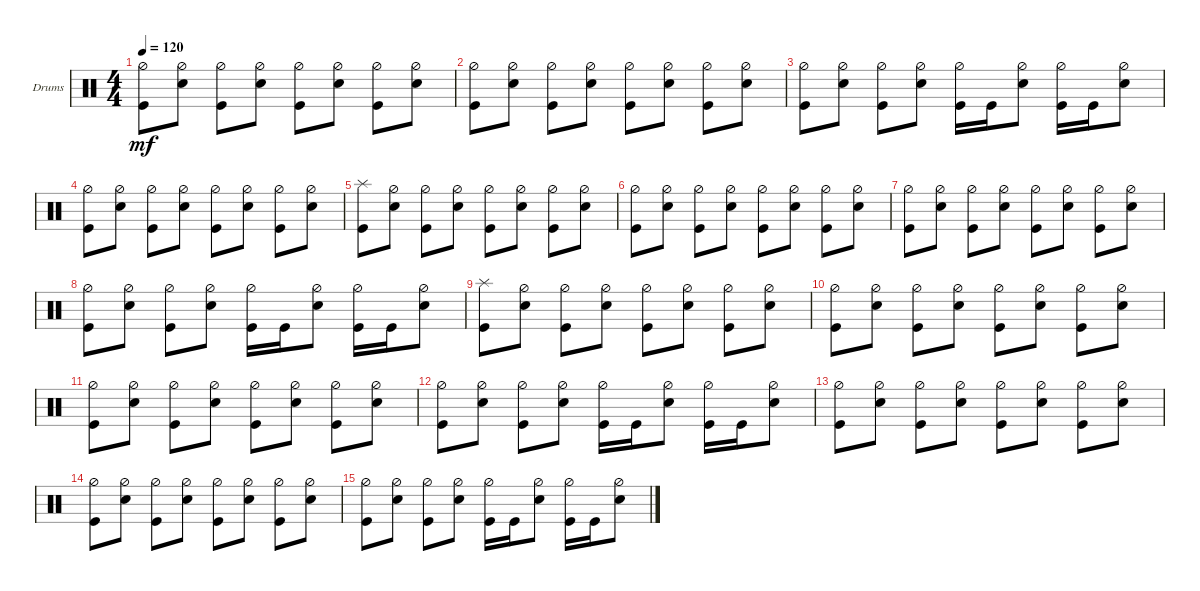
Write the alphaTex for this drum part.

\bracketExtendMode groupsimilarinstruments
\firstSystemTrackNameOrientation horizontal
\otherSystemsTrackNameOrientation horizontal
\track ("Drumkit" "Drums") {solo instrument percussion}
\staff {score}
\articulation defaults
\ts (4 4)
\tempo 120
\clef neutral
\ks c
("Kick (hit)" "Hi-Hat (half)").8{dy mf} ("Snare (hit) 2" "Hi-Hat (half)").8 ("Kick (hit)" "Hi-Hat (half)").8 ("Snare (hit) 2" "Hi-Hat (half)").8 ("Kick (hit)" "Hi-Hat (half)").8 ("Snare (hit) 2" "Hi-Hat (half)").8 ("Kick (hit)" "Hi-Hat (half)").8 ("Snare (hit) 2" "Hi-Hat (half)").8 |
("Kick (hit)" "Hi-Hat (half)").8 ("Snare (hit) 2" "Hi-Hat (half)").8 ("Kick (hit)" "Hi-Hat (half)").8 ("Snare (hit) 2" "Hi-Hat (half)").8 ("Kick (hit)" "Hi-Hat (half)").8 ("Snare (hit) 2" "Hi-Hat (half)").8 ("Kick (hit)" "Hi-Hat (half)").8 ("Snare (hit) 2" "Hi-Hat (half)").8 |
("Kick (hit)" "Hi-Hat (half)").8 ("Snare (hit) 2" "Hi-Hat (half)").8 ("Kick (hit)" "Hi-Hat (half)").8 ("Snare (hit) 2" "Hi-Hat (half)").8 ("Kick (hit)" "Hi-Hat (half)").16 "Kick (hit)".16 ("Snare (hit) 2" "Hi-Hat (half)").8 ("Kick (hit)" "Hi-Hat (half)").16 "Kick (hit)".16 ("Snare (hit) 2" "Hi-Hat (half)").8 |
("Kick (hit)" "Hi-Hat (half)").8 ("Snare (hit) 2" "Hi-Hat (half)").8 ("Kick (hit)" "Hi-Hat (half)").8 ("Snare (hit) 2" "Hi-Hat (half)").8 ("Kick (hit)" "Hi-Hat (half)").8 ("Snare (hit) 2" "Hi-Hat (half)").8 ("Kick (hit)" "Hi-Hat (half)").8 ("Snare (hit) 2" "Hi-Hat (half)").8 |
("Kick (hit)" "Splash (hit)").8 ("Snare (hit) 2" "Hi-Hat (half)").8 ("Kick (hit)" "Hi-Hat (half)").8 ("Snare (hit) 2" "Hi-Hat (half)").8 ("Kick (hit)" "Hi-Hat (half)").8 ("Snare (hit) 2" "Hi-Hat (half)").8 ("Kick (hit)" "Hi-Hat (half)").8 ("Snare (hit) 2" "Hi-Hat (half)").8 |
("Kick (hit)" "Hi-Hat (half)").8 ("Snare (hit) 2" "Hi-Hat (half)").8 ("Kick (hit)" "Hi-Hat (half)").8 ("Snare (hit) 2" "Hi-Hat (half)").8 ("Kick (hit)" "Hi-Hat (half)").8 ("Snare (hit) 2" "Hi-Hat (half)").8 ("Kick (hit)" "Hi-Hat (half)").8 ("Snare (hit) 2" "Hi-Hat (half)").8 |
("Kick (hit)" "Hi-Hat (half)").8 ("Snare (hit) 2" "Hi-Hat (half)").8 ("Kick (hit)" "Hi-Hat (half)").8 ("Snare (hit) 2" "Hi-Hat (half)").8 ("Kick (hit)" "Hi-Hat (half)").8 ("Snare (hit) 2" "Hi-Hat (half)").8 ("Kick (hit)" "Hi-Hat (half)").8 ("Snare (hit) 2" "Hi-Hat (half)").8 |
("Kick (hit)" "Hi-Hat (half)").8 ("Snare (hit) 2" "Hi-Hat (half)").8 ("Kick (hit)" "Hi-Hat (half)").8 ("Snare (hit) 2" "Hi-Hat (half)").8 ("Kick (hit)" "Hi-Hat (half)").16 "Kick (hit)".16 ("Snare (hit) 2" "Hi-Hat (half)").8 ("Kick (hit)" "Hi-Hat (half)").16 "Kick (hit)".16 ("Snare (hit) 2" "Hi-Hat (half)").8 |
("Kick (hit)" "Splash (hit)").8 ("Snare (hit) 2" "Hi-Hat (half)").8 ("Kick (hit)" "Hi-Hat (half)").8 ("Snare (hit) 2" "Hi-Hat (half)").8 ("Kick (hit)" "Hi-Hat (half)").8 ("Snare (hit) 2" "Hi-Hat (half)").8 ("Kick (hit)" "Hi-Hat (half)").8 ("Snare (hit) 2" "Hi-Hat (half)").8 |
("Kick (hit)" "Hi-Hat (half)").8 ("Snare (hit) 2" "Hi-Hat (half)").8 ("Kick (hit)" "Hi-Hat (half)").8 ("Snare (hit) 2" "Hi-Hat (half)").8 ("Kick (hit)" "Hi-Hat (half)").8 ("Snare (hit) 2" "Hi-Hat (half)").8 ("Kick (hit)" "Hi-Hat (half)").8 ("Snare (hit) 2" "Hi-Hat (half)").8 |
("Kick (hit)" "Hi-Hat (half)").8 ("Snare (hit) 2" "Hi-Hat (half)").8 ("Kick (hit)" "Hi-Hat (half)").8 ("Snare (hit) 2" "Hi-Hat (half)").8 ("Kick (hit)" "Hi-Hat (half)").8 ("Snare (hit) 2" "Hi-Hat (half)").8 ("Kick (hit)" "Hi-Hat (half)").8 ("Snare (hit) 2" "Hi-Hat (half)").8 |
("Kick (hit)" "Hi-Hat (half)").8 ("Snare (hit) 2" "Hi-Hat (half)").8 ("Kick (hit)" "Hi-Hat (half)").8 ("Snare (hit) 2" "Hi-Hat (half)").8 ("Kick (hit)" "Hi-Hat (half)").16 "Kick (hit)".16 ("Snare (hit) 2" "Hi-Hat (half)").8 ("Kick (hit)" "Hi-Hat (half)").16 "Kick (hit)".16 ("Snare (hit) 2" "Hi-Hat (half)").8 |
("Kick (hit)" "Hi-Hat (half)").8 ("Snare (hit) 2" "Hi-Hat (half)").8 ("Kick (hit)" "Hi-Hat (half)").8 ("Snare (hit) 2" "Hi-Hat (half)").8 ("Kick (hit)" "Hi-Hat (half)").8 ("Snare (hit) 2" "Hi-Hat (half)").8 ("Kick (hit)" "Hi-Hat (half)").8 ("Snare (hit) 2" "Hi-Hat (half)").8 |
("Kick (hit)" "Hi-Hat (half)").8 ("Snare (hit) 2" "Hi-Hat (half)").8 ("Kick (hit)" "Hi-Hat (half)").8 ("Snare (hit) 2" "Hi-Hat (half)").8 ("Kick (hit)" "Hi-Hat (half)").8 ("Snare (hit) 2" "Hi-Hat (half)").8 ("Kick (hit)" "Hi-Hat (half)").8 ("Snare (hit) 2" "Hi-Hat (half)").8 |
("Kick (hit)" "Hi-Hat (half)").8 ("Snare (hit) 2" "Hi-Hat (half)").8 ("Kick (hit)" "Hi-Hat (half)").8 ("Snare (hit) 2" "Hi-Hat (half)").8 ("Kick (hit)" "Hi-Hat (half)").16 "Kick (hit)".16 ("Snare (hit) 2" "Hi-Hat (half)").8 ("Kick (hit)" "Hi-Hat (half)").16 "Kick (hit)".16 ("Snare (hit) 2" "Hi-Hat (half)").8
